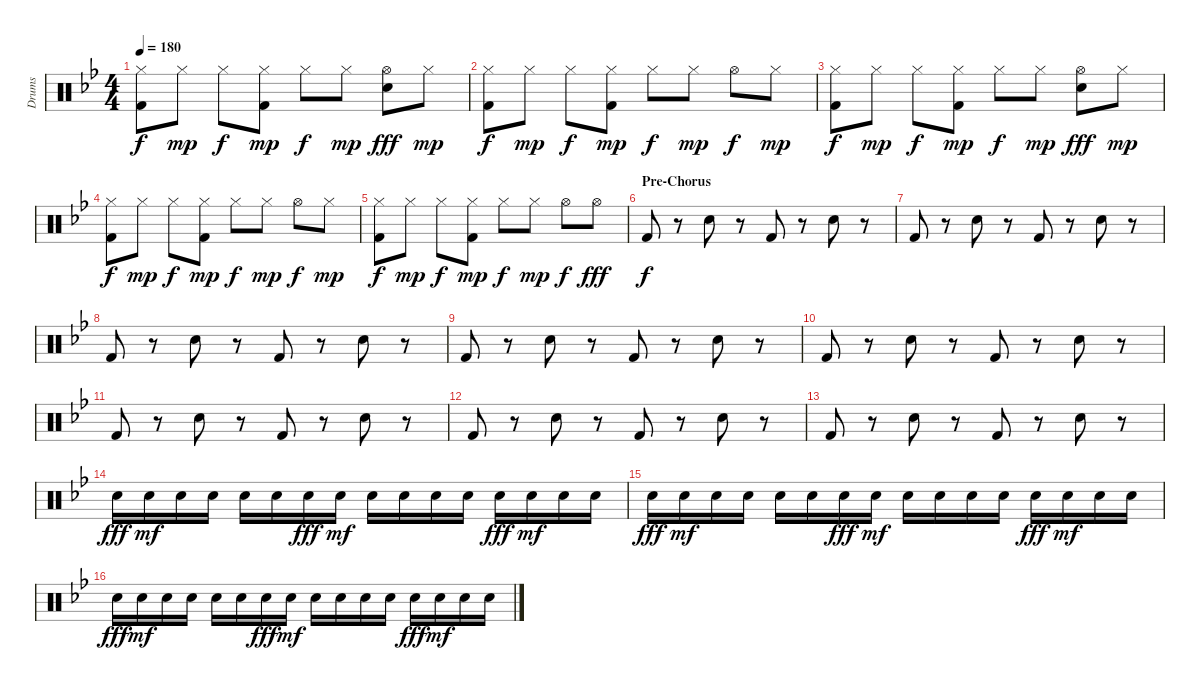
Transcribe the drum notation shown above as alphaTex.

\track ("Drums" "Drums") {instrument percussion}
\staff {score}
\articulation defaults
\ts (4 4)
\tempo 180
\clef neutral
\ks bb
("Hi-Hat (closed)" "Kick (hit) 2").8{dy f} "Hi-Hat (closed)".8{dy mp} "Hi-Hat (closed)".8{dy f} ("Hi-Hat (closed)" "Kick (hit) 2").8{dy mp} "Hi-Hat (closed)".8{dy f} "Hi-Hat (closed)".8{dy mp} ("Hi-Hat (open)" "Electric Snare (hit)").8{dy fff} "Hi-Hat (closed)".8{dy mp} |
("Hi-Hat (closed)" "Kick (hit) 2").8{dy f} "Hi-Hat (closed)".8{dy mp} "Hi-Hat (closed)".8{dy f} ("Hi-Hat (closed)" "Kick (hit) 2").8{dy mp} "Hi-Hat (closed)".8{dy f} "Hi-Hat (closed)".8{dy mp} "Hi-Hat (open)".8{dy f} "Hi-Hat (closed)".8{dy mp} |
("Hi-Hat (closed)" "Kick (hit) 2").8{dy f} "Hi-Hat (closed)".8{dy mp} "Hi-Hat (closed)".8{dy f} ("Hi-Hat (closed)" "Kick (hit) 2").8{dy mp} "Hi-Hat (closed)".8{dy f} "Hi-Hat (closed)".8{dy mp} ("Hi-Hat (open)" "Electric Snare (hit)").8{dy fff} "Hi-Hat (closed)".8{dy mp} |
("Hi-Hat (closed)" "Kick (hit) 2").8{dy f} "Hi-Hat (closed)".8{dy mp} "Hi-Hat (closed)".8{dy f} ("Hi-Hat (closed)" "Kick (hit) 2").8{dy mp} "Hi-Hat (closed)".8{dy f} "Hi-Hat (closed)".8{dy mp} "Hi-Hat (open)".8{dy f} "Hi-Hat (closed)".8{dy mp} |
("Hi-Hat (closed)" "Kick (hit) 2").8{dy f} "Hi-Hat (closed)".8{dy mp} "Hi-Hat (closed)".8{dy f} ("Hi-Hat (closed)" "Kick (hit) 2").8{dy mp} "Hi-Hat (closed)".8{dy f} "Hi-Hat (closed)".8{dy mp} "Hi-Hat (open)".8{dy f} "Hi-Hat (open)".8{dy fff} |
\section ("" "Pre-Chorus")
"Kick (hit) 2".8{dy f} r.8 "Electric Snare (hit)".8 r.8 "Kick (hit) 2".8 r.8 "Electric Snare (hit)".8 r.8 |
"Kick (hit) 2".8 r.8 "Electric Snare (hit)".8 r.8 "Kick (hit) 2".8 r.8 "Electric Snare (hit)".8 r.8 |
"Kick (hit) 2".8 r.8 "Electric Snare (hit)".8 r.8 "Kick (hit) 2".8 r.8 "Electric Snare (hit)".8 r.8 |
"Kick (hit) 2".8 r.8 "Electric Snare (hit)".8 r.8 "Kick (hit) 2".8 r.8 "Electric Snare (hit)".8 r.8 |
"Kick (hit) 2".8 r.8 "Electric Snare (hit)".8 r.8 "Kick (hit) 2".8 r.8 "Electric Snare (hit)".8 r.8 |
"Kick (hit) 2".8 r.8 "Electric Snare (hit)".8 r.8 "Kick (hit) 2".8 r.8 "Electric Snare (hit)".8 r.8 |
"Kick (hit) 2".8 r.8 "Electric Snare (hit)".8 r.8 "Kick (hit) 2".8 r.8 "Electric Snare (hit)".8 r.8 |
"Kick (hit) 2".8 r.8 "Electric Snare (hit)".8 r.8 "Kick (hit) 2".8 r.8 "Electric Snare (hit)".8 r.8 |
"Electric Snare (hit)".16{dy fff} "Electric Snare (hit)".16{dy mf} "Electric Snare (hit)".16 "Electric Snare (hit)".16 "Electric Snare (hit)".16 "Electric Snare (hit)".16 "Electric Snare (hit)".16{dy fff} "Electric Snare (hit)".16{dy mf} "Electric Snare (hit)".16 "Electric Snare (hit)".16 "Electric Snare (hit)".16 "Electric Snare (hit)".16 "Electric Snare (hit)".16{dy fff} "Electric Snare (hit)".16{dy mf} "Electric Snare (hit)".16 "Electric Snare (hit)".16 |
"Electric Snare (hit)".16{dy fff} "Electric Snare (hit)".16{dy mf} "Electric Snare (hit)".16 "Electric Snare (hit)".16 "Electric Snare (hit)".16 "Electric Snare (hit)".16 "Electric Snare (hit)".16{dy fff} "Electric Snare (hit)".16{dy mf} "Electric Snare (hit)".16 "Electric Snare (hit)".16 "Electric Snare (hit)".16 "Electric Snare (hit)".16 "Electric Snare (hit)".16{dy fff} "Electric Snare (hit)".16{dy mf} "Electric Snare (hit)".16 "Electric Snare (hit)".16 |
"Electric Snare (hit)".16{dy fff} "Electric Snare (hit)".16{dy mf} "Electric Snare (hit)".16 "Electric Snare (hit)".16 "Electric Snare (hit)".16 "Electric Snare (hit)".16 "Electric Snare (hit)".16{dy fff} "Electric Snare (hit)".16{dy mf} "Electric Snare (hit)".16 "Electric Snare (hit)".16 "Electric Snare (hit)".16 "Electric Snare (hit)".16 "Electric Snare (hit)".16{dy fff} "Electric Snare (hit)".16{dy mf} "Electric Snare (hit)".16 "Electric Snare (hit)".16
